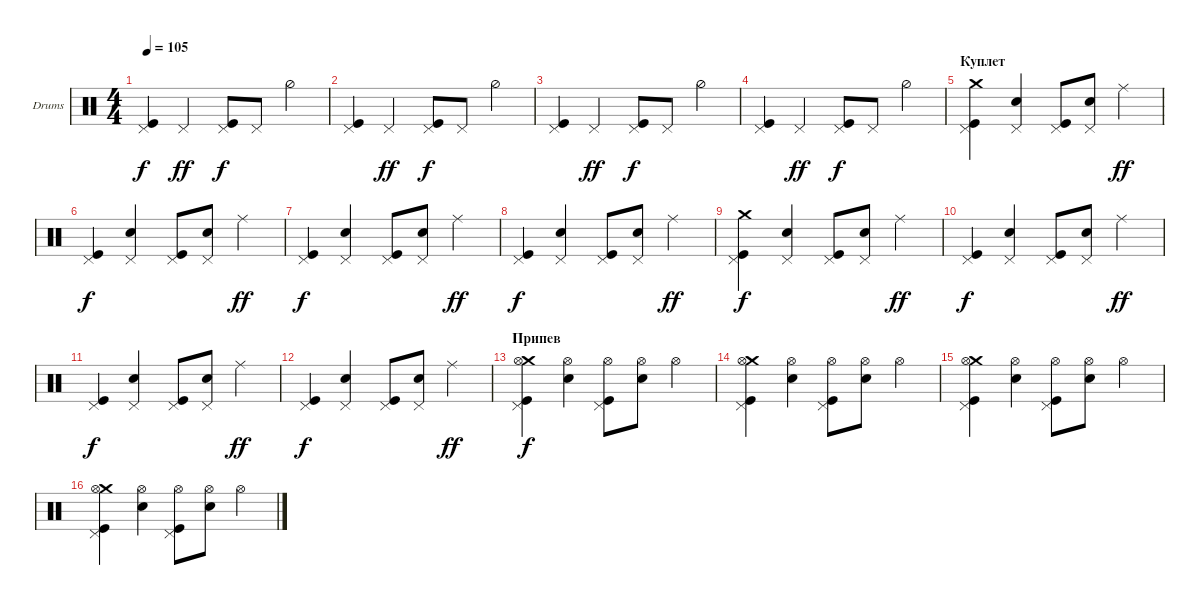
\defaultSystemsLayout 4
\bracketExtendMode groupsimilarinstruments
\firstSystemTrackNameOrientation horizontal
\otherSystemsTrackNameOrientation horizontal
\track ("Е. Кулаков" "Drums") {instrument percussion}
\staff {score}
\articulation defaults
\ts (4 4)
\tempo 105
\clef neutral
\ks c
("Pedal Hi-Hat (hit)" "Kick (hit)").4{dy f} "Pedal Hi-Hat (hit)".4{dy ff} ("Pedal Hi-Hat (hit)" "Kick (hit)").8{dy f} "Pedal Hi-Hat (hit)".8 "Hi-Hat (half)".4 |
("Pedal Hi-Hat (hit)" "Kick (hit)").4 "Pedal Hi-Hat (hit)".4{dy ff} ("Pedal Hi-Hat (hit)" "Kick (hit)").8{dy f} "Pedal Hi-Hat (hit)".8 "Hi-Hat (half)".4 |
("Pedal Hi-Hat (hit)" "Kick (hit)").4 "Pedal Hi-Hat (hit)".4{dy ff} ("Pedal Hi-Hat (hit)" "Kick (hit)").8{dy f} "Pedal Hi-Hat (hit)".8 "Hi-Hat (half)".4 |
("Pedal Hi-Hat (hit)" "Kick (hit)").4 "Pedal Hi-Hat (hit)".4{dy ff} ("Pedal Hi-Hat (hit)" "Kick (hit)").8{dy f} "Pedal Hi-Hat (hit)".8 "Hi-Hat (half)".4 |
\section ("" "Куплет")
("Crash medium (hit)" "Pedal Hi-Hat (hit)" "Kick (hit)").4 ("Snare (hit) 2" "Pedal Hi-Hat (hit)").4 ("Pedal Hi-Hat (hit)" "Kick (hit)").8 ("Snare (hit) 2" "Pedal Hi-Hat (hit)").8 "Ride (middle)".4{dy ff} |
("Pedal Hi-Hat (hit)" "Kick (hit)").4{dy f} ("Snare (hit) 2" "Pedal Hi-Hat (hit)").4 ("Pedal Hi-Hat (hit)" "Kick (hit)").8 ("Snare (hit) 2" "Pedal Hi-Hat (hit)").8 "Ride (middle)".4{dy ff} |
("Pedal Hi-Hat (hit)" "Kick (hit)").4{dy f} ("Snare (hit) 2" "Pedal Hi-Hat (hit)").4 ("Pedal Hi-Hat (hit)" "Kick (hit)").8 ("Snare (hit) 2" "Pedal Hi-Hat (hit)").8 "Ride (middle)".4{dy ff} |
("Pedal Hi-Hat (hit)" "Kick (hit)").4{dy f} ("Snare (hit) 2" "Pedal Hi-Hat (hit)").4 ("Pedal Hi-Hat (hit)" "Kick (hit)").8 ("Snare (hit) 2" "Pedal Hi-Hat (hit)").8 "Ride (middle)".4{dy ff} |
("Crash medium (hit)" "Pedal Hi-Hat (hit)" "Kick (hit)").4{dy f} ("Snare (hit) 2" "Pedal Hi-Hat (hit)").4 ("Pedal Hi-Hat (hit)" "Kick (hit)").8 ("Snare (hit) 2" "Pedal Hi-Hat (hit)").8 "Ride (middle)".4{dy ff} |
("Pedal Hi-Hat (hit)" "Kick (hit)").4{dy f} ("Snare (hit) 2" "Pedal Hi-Hat (hit)").4 ("Pedal Hi-Hat (hit)" "Kick (hit)").8 ("Snare (hit) 2" "Pedal Hi-Hat (hit)").8 "Ride (middle)".4{dy ff} |
("Pedal Hi-Hat (hit)" "Kick (hit)").4{dy f} ("Snare (hit) 2" "Pedal Hi-Hat (hit)").4 ("Pedal Hi-Hat (hit)" "Kick (hit)").8 ("Snare (hit) 2" "Pedal Hi-Hat (hit)").8 "Ride (middle)".4{dy ff} |
("Pedal Hi-Hat (hit)" "Kick (hit)").4{dy f} ("Snare (hit) 2" "Pedal Hi-Hat (hit)").4 ("Pedal Hi-Hat (hit)" "Kick (hit)").8 ("Snare (hit) 2" "Pedal Hi-Hat (hit)").8 "Ride (middle)".4{dy ff} |
\section ("" "Припев")
("Crash medium (hit)" "Pedal Hi-Hat (hit)" "Kick (hit)" "Hi-Hat (open)").4{dy f} ("Snare (hit) 2" "Hi-Hat (open)").4 ("Pedal Hi-Hat (hit)" "Kick (hit)" "Hi-Hat (open)").8 ("Snare (hit) 2" "Hi-Hat (open)").8 "Hi-Hat (open)".4 |
("Crash medium (hit)" "Pedal Hi-Hat (hit)" "Kick (hit)" "Hi-Hat (open)").4 ("Snare (hit) 2" "Hi-Hat (open)").4 ("Pedal Hi-Hat (hit)" "Kick (hit)" "Hi-Hat (open)").8 ("Snare (hit) 2" "Hi-Hat (open)").8 "Hi-Hat (open)".4 |
("Crash medium (hit)" "Pedal Hi-Hat (hit)" "Kick (hit)" "Hi-Hat (open)").4 ("Snare (hit) 2" "Hi-Hat (open)").4 ("Pedal Hi-Hat (hit)" "Kick (hit)" "Hi-Hat (open)").8 ("Snare (hit) 2" "Hi-Hat (open)").8 "Hi-Hat (open)".4 |
("Crash medium (hit)" "Pedal Hi-Hat (hit)" "Kick (hit)" "Hi-Hat (open)").4 ("Snare (hit) 2" "Hi-Hat (open)").4 ("Pedal Hi-Hat (hit)" "Kick (hit)" "Hi-Hat (open)").8 ("Snare (hit) 2" "Hi-Hat (open)").8 "Hi-Hat (open)".4
